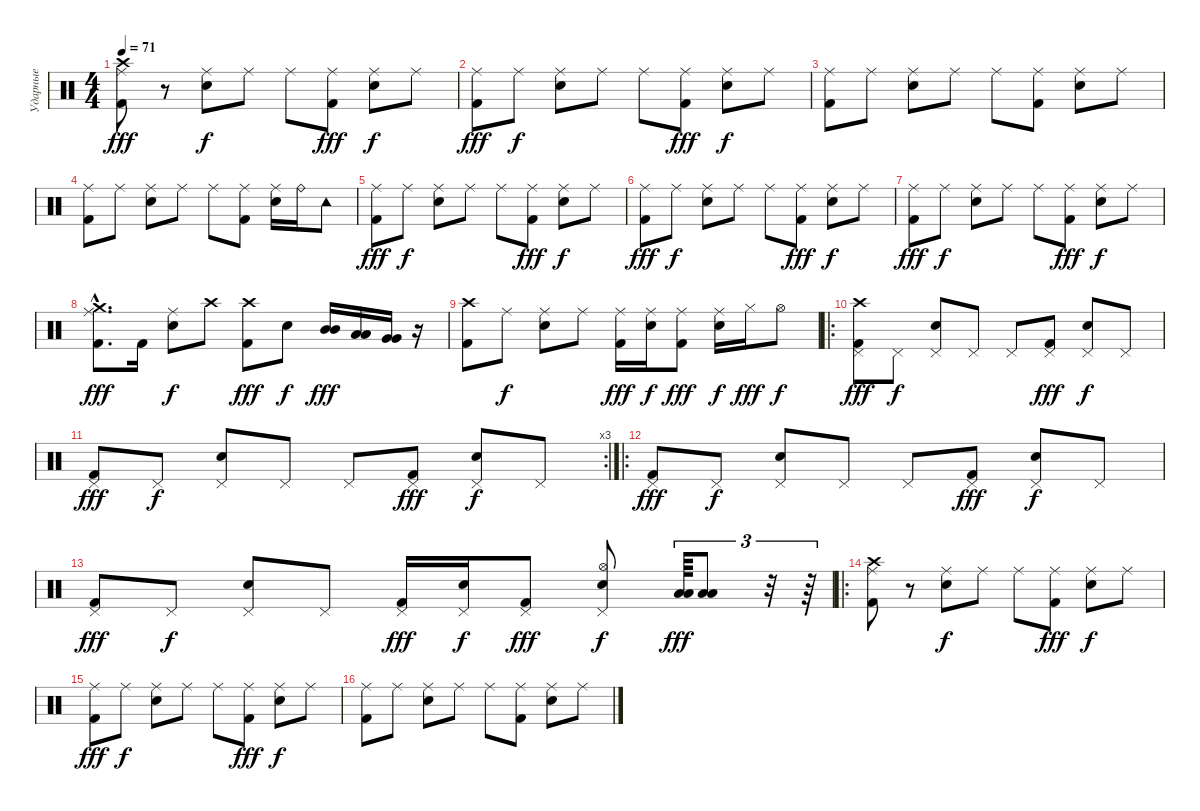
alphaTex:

\track ("Ударные" "Ударные") {instrument percussion}
\staff {score}
\articulation defaults
\ts (4 4)
\tempo 71
\clef neutral
\ks c
("Ride (middle)" "Crash high (hit)" "Kick (hit) 2").8{dy fff} r.8 ("Ride (middle)" "Electric Snare (hit)").8{dy f} "Ride (middle)".8 "Ride (middle)".8 ("Ride (middle)" "Kick (hit) 2").8{dy fff} ("Ride (middle)" "Electric Snare (hit)").8{dy f} "Ride (middle)".8 |
("Ride (middle)" "Kick (hit) 2").8{dy fff} "Ride (middle)".8{dy f} ("Ride (middle)" "Electric Snare (hit)").8 "Ride (middle)".8 "Ride (middle)".8 ("Ride (middle)" "Kick (hit) 2").8{dy fff} ("Ride (middle)" "Electric Snare (hit)").8{dy f} "Ride (middle)".8 |
("Ride (middle)" "Kick (hit) 2").8 "Ride (middle)".8 ("Ride (middle)" "Electric Snare (hit)").8 "Ride (middle)".8 "Ride (middle)".8 ("Ride (middle)" "Kick (hit) 2").8 ("Ride (middle)" "Electric Snare (hit)").8 "Ride (middle)".8 |
("Ride (middle)" "Kick (hit) 2").8 "Ride (middle)".8 ("Ride (middle)" "Electric Snare (hit)").8 "Ride (middle)".8 "Ride (middle)".8 ("Ride (middle)" "Kick (hit) 2").8 ("Ride (middle)" "Electric Snare (hit)").16 "Ride (bell)".16 "Tambourine (hit)".8 |
("Ride (middle)" "Kick (hit) 2").8{dy fff} "Ride (middle)".8{dy f} ("Ride (middle)" "Electric Snare (hit)").8 "Ride (middle)".8 "Ride (middle)".8 ("Ride (middle)" "Kick (hit) 2").8{dy fff} ("Ride (middle)" "Electric Snare (hit)").8{dy f} "Ride (middle)".8 |
("Ride (middle)" "Kick (hit) 2").8{dy fff} "Ride (middle)".8{dy f} ("Ride (middle)" "Electric Snare (hit)").8 "Ride (middle)".8 "Ride (middle)".8 ("Ride (middle)" "Kick (hit) 2").8{dy fff} ("Ride (middle)" "Electric Snare (hit)").8{dy f} "Ride (middle)".8 |
("Ride (middle)" "Kick (hit) 2").8{dy fff} "Ride (middle)".8{dy f} ("Ride (middle)" "Electric Snare (hit)").8 "Ride (middle)".8 "Ride (middle)".8 ("Ride (middle)" "Kick (hit) 2").8{dy fff} ("Ride (middle)" "Electric Snare (hit)").8{dy f} "Ride (middle)".8 |
("Ride (middle)"{hac} "Crash medium (hit)"{hac} "Kick (hit) 2"{hac}).8{d dy fff} "Kick (hit) 2".16 ("Ride (middle)" "Electric Snare (hit)").8{dy f} "Crash high (hit)".8 ("Kick (hit) 2" "Crash high (hit)").8{dy fff} "Electric Snare (hit)".8{dy f} ("Mid Tom (hit)" "Mid Tom (hit)").16{dy fff} ("Low Tom (hit)" "Low Tom (hit)").16 ("Very Low Tom (hit)" "Very Low Tom (hit)").16 r.16 |
("Crash high (hit)" "Kick (hit) 2").8 "Ride (middle)".8{dy f} ("Ride (middle)" "Electric Snare (hit)").8 "Ride (middle)".8 ("Ride (middle)" "Kick (hit) 2").16{dy fff} ("Ride (middle)" "Electric Snare (hit)").16{dy f} ("Ride (middle)" "Kick (hit) 2").8{dy fff} ("Ride (middle)" "Electric Snare (hit)").16{dy f} "Hi-Hat (closed)".16{dy fff} "Hi-Hat (open)".8{dy f} |
\ro
("Pedal Hi-Hat (hit)" "Crash high (hit)" "Kick (hit) 2").8{dy fff} "Pedal Hi-Hat (hit)".8{dy f} ("Pedal Hi-Hat (hit)" "Electric Snare (hit)").8 "Pedal Hi-Hat (hit)".8 "Pedal Hi-Hat (hit)".8 ("Pedal Hi-Hat (hit)" "Kick (hit) 2").8{dy fff} ("Pedal Hi-Hat (hit)" "Electric Snare (hit)").8{dy f} "Pedal Hi-Hat (hit)".8 |
\rc 3
("Pedal Hi-Hat (hit)" "Kick (hit) 2").8{dy fff} "Pedal Hi-Hat (hit)".8{dy f} ("Pedal Hi-Hat (hit)" "Electric Snare (hit)").8 "Pedal Hi-Hat (hit)".8 "Pedal Hi-Hat (hit)".8 ("Pedal Hi-Hat (hit)" "Kick (hit) 2").8{dy fff} ("Pedal Hi-Hat (hit)" "Electric Snare (hit)").8{dy f} "Pedal Hi-Hat (hit)".8 |
\ro
("Pedal Hi-Hat (hit)" "Kick (hit) 2").8{dy fff} "Pedal Hi-Hat (hit)".8{dy f} ("Pedal Hi-Hat (hit)" "Electric Snare (hit)").8 "Pedal Hi-Hat (hit)".8 "Pedal Hi-Hat (hit)".8 ("Pedal Hi-Hat (hit)" "Kick (hit) 2").8{dy fff} ("Pedal Hi-Hat (hit)" "Electric Snare (hit)").8{dy f} "Pedal Hi-Hat (hit)".8 |
("Pedal Hi-Hat (hit)" "Kick (hit) 2").8{dy fff} "Pedal Hi-Hat (hit)".8{dy f} ("Pedal Hi-Hat (hit)" "Electric Snare (hit)").8 "Pedal Hi-Hat (hit)".8 ("Pedal Hi-Hat (hit)" "Kick (hit) 2").16{dy fff} ("Pedal Hi-Hat (hit)" "Electric Snare (hit)").16{dy f} ("Pedal Hi-Hat (hit)" "Kick (hit) 2").8{dy fff} ("Pedal Hi-Hat (hit)" "Hi-Hat (open)" "Electric Snare (hit)").8{dy f} ("Low Tom (hit)" "Low Tom (hit)").64{tu (3 2) dy fff} ("Low Tom (hit)" "Low Tom (hit)").8{tu (3 2)} r.32{tu (3 2)} r.64{tu (3 2)} |
\ro
("Ride (middle)" "Crash high (hit)" "Kick (hit) 2").8 r.8 ("Ride (middle)" "Electric Snare (hit)").8{dy f} "Ride (middle)".8 "Ride (middle)".8 ("Ride (middle)" "Kick (hit) 2").8{dy fff} ("Ride (middle)" "Electric Snare (hit)").8{dy f} "Ride (middle)".8 |
("Ride (middle)" "Kick (hit) 2").8{dy fff} "Ride (middle)".8{dy f} ("Ride (middle)" "Electric Snare (hit)").8 "Ride (middle)".8 "Ride (middle)".8 ("Ride (middle)" "Kick (hit) 2").8{dy fff} ("Ride (middle)" "Electric Snare (hit)").8{dy f} "Ride (middle)".8 |
("Ride (middle)" "Kick (hit) 2").8 "Ride (middle)".8 ("Ride (middle)" "Electric Snare (hit)").8 "Ride (middle)".8 "Ride (middle)".8 ("Ride (middle)" "Kick (hit) 2").8 ("Ride (middle)" "Electric Snare (hit)").8 "Ride (middle)".8
